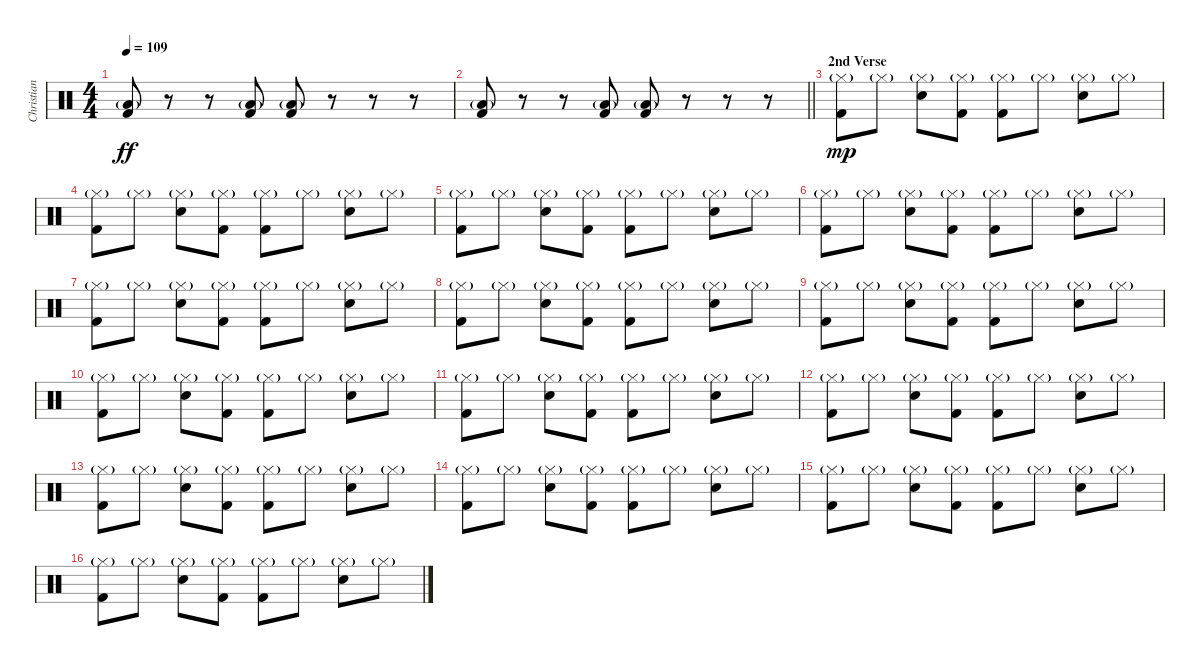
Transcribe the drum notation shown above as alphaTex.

\track ("Christian Eigner - Drums" "Christian ") {instrument percussion}
\staff {score}
\articulation defaults
\ts (4 4)
\tempo 109
\clef neutral
\ks c
("Low Floor Tom (hit)"{g} "Kick (hit) 2").8{dy ff} r.8 r.8 ("Low Floor Tom (hit)"{g} "Kick (hit) 2").8 ("Low Floor Tom (hit)"{g} "Kick (hit) 2").8 r.8 r.8 r.8 |
\barLineRight lightlight
("Low Floor Tom (hit)"{g} "Kick (hit) 2").8 r.8 r.8 ("Low Floor Tom (hit)"{g} "Kick (hit) 2").8 ("Low Floor Tom (hit)"{g} "Kick (hit) 2").8 r.8 r.8 r.8 |
\section ("" "2nd Verse")
("Hi-Hat (closed)"{g} "Kick (hit) 2").8{dy mp} "Hi-Hat (closed)"{g}.8 ("Hi-Hat (closed)"{g} "Snare (hit) 2").8 ("Hi-Hat (closed)"{g} "Kick (hit) 2").8 ("Hi-Hat (closed)"{g} "Kick (hit) 2").8 "Hi-Hat (closed)"{g}.8 ("Hi-Hat (closed)"{g} "Snare (hit) 2").8 "Hi-Hat (closed)"{g}.8 |
("Hi-Hat (closed)"{g} "Kick (hit) 2").8 "Hi-Hat (closed)"{g}.8 ("Hi-Hat (closed)"{g} "Snare (hit) 2").8 ("Hi-Hat (closed)"{g} "Kick (hit) 2").8 ("Hi-Hat (closed)"{g} "Kick (hit) 2").8 "Hi-Hat (closed)"{g}.8 ("Hi-Hat (closed)"{g} "Snare (hit) 2").8 "Hi-Hat (closed)"{g}.8 |
("Hi-Hat (closed)"{g} "Kick (hit) 2").8 "Hi-Hat (closed)"{g}.8 ("Hi-Hat (closed)"{g} "Snare (hit) 2").8 ("Hi-Hat (closed)"{g} "Kick (hit) 2").8 ("Hi-Hat (closed)"{g} "Kick (hit) 2").8 "Hi-Hat (closed)"{g}.8 ("Hi-Hat (closed)"{g} "Snare (hit) 2").8 "Hi-Hat (closed)"{g}.8 |
("Hi-Hat (closed)"{g} "Kick (hit) 2").8 "Hi-Hat (closed)"{g}.8 ("Hi-Hat (closed)"{g} "Snare (hit) 2").8 ("Hi-Hat (closed)"{g} "Kick (hit) 2").8 ("Hi-Hat (closed)"{g} "Kick (hit) 2").8 "Hi-Hat (closed)"{g}.8 ("Hi-Hat (closed)"{g} "Snare (hit) 2").8 "Hi-Hat (closed)"{g}.8 |
("Hi-Hat (closed)"{g} "Kick (hit) 2").8 "Hi-Hat (closed)"{g}.8 ("Hi-Hat (closed)"{g} "Snare (hit) 2").8 ("Hi-Hat (closed)"{g} "Kick (hit) 2").8 ("Hi-Hat (closed)"{g} "Kick (hit) 2").8 "Hi-Hat (closed)"{g}.8 ("Hi-Hat (closed)"{g} "Snare (hit) 2").8 "Hi-Hat (closed)"{g}.8 |
("Hi-Hat (closed)"{g} "Kick (hit) 2").8 "Hi-Hat (closed)"{g}.8 ("Hi-Hat (closed)"{g} "Snare (hit) 2").8 ("Hi-Hat (closed)"{g} "Kick (hit) 2").8 ("Hi-Hat (closed)"{g} "Kick (hit) 2").8 "Hi-Hat (closed)"{g}.8 ("Hi-Hat (closed)"{g} "Snare (hit) 2").8 "Hi-Hat (closed)"{g}.8 |
("Hi-Hat (closed)"{g} "Kick (hit) 2").8 "Hi-Hat (closed)"{g}.8 ("Hi-Hat (closed)"{g} "Snare (hit) 2").8 ("Hi-Hat (closed)"{g} "Kick (hit) 2").8 ("Hi-Hat (closed)"{g} "Kick (hit) 2").8 "Hi-Hat (closed)"{g}.8 ("Hi-Hat (closed)"{g} "Snare (hit) 2").8 "Hi-Hat (closed)"{g}.8 |
("Hi-Hat (closed)"{g} "Kick (hit) 2").8 "Hi-Hat (closed)"{g}.8 ("Hi-Hat (closed)"{g} "Snare (hit) 2").8 ("Hi-Hat (closed)"{g} "Kick (hit) 2").8 ("Hi-Hat (closed)"{g} "Kick (hit) 2").8 "Hi-Hat (closed)"{g}.8 ("Hi-Hat (closed)"{g} "Snare (hit) 2").8 "Hi-Hat (closed)"{g}.8 |
("Hi-Hat (closed)"{g} "Kick (hit) 2").8 "Hi-Hat (closed)"{g}.8 ("Hi-Hat (closed)"{g} "Snare (hit) 2").8 ("Hi-Hat (closed)"{g} "Kick (hit) 2").8 ("Hi-Hat (closed)"{g} "Kick (hit) 2").8 "Hi-Hat (closed)"{g}.8 ("Hi-Hat (closed)"{g} "Snare (hit) 2").8 "Hi-Hat (closed)"{g}.8 |
("Hi-Hat (closed)"{g} "Kick (hit) 2").8 "Hi-Hat (closed)"{g}.8 ("Hi-Hat (closed)"{g} "Snare (hit) 2").8 ("Hi-Hat (closed)"{g} "Kick (hit) 2").8 ("Hi-Hat (closed)"{g} "Kick (hit) 2").8 "Hi-Hat (closed)"{g}.8 ("Hi-Hat (closed)"{g} "Snare (hit) 2").8 "Hi-Hat (closed)"{g}.8 |
("Hi-Hat (closed)"{g} "Kick (hit) 2").8 "Hi-Hat (closed)"{g}.8 ("Hi-Hat (closed)"{g} "Snare (hit) 2").8 ("Hi-Hat (closed)"{g} "Kick (hit) 2").8 ("Hi-Hat (closed)"{g} "Kick (hit) 2").8 "Hi-Hat (closed)"{g}.8 ("Hi-Hat (closed)"{g} "Snare (hit) 2").8 "Hi-Hat (closed)"{g}.8 |
("Hi-Hat (closed)"{g} "Kick (hit) 2").8 "Hi-Hat (closed)"{g}.8 ("Hi-Hat (closed)"{g} "Snare (hit) 2").8 ("Hi-Hat (closed)"{g} "Kick (hit) 2").8 ("Hi-Hat (closed)"{g} "Kick (hit) 2").8 "Hi-Hat (closed)"{g}.8 ("Hi-Hat (closed)"{g} "Snare (hit) 2").8 "Hi-Hat (closed)"{g}.8 |
("Hi-Hat (closed)"{g} "Kick (hit) 2").8 "Hi-Hat (closed)"{g}.8 ("Hi-Hat (closed)"{g} "Snare (hit) 2").8 ("Hi-Hat (closed)"{g} "Kick (hit) 2").8 ("Hi-Hat (closed)"{g} "Kick (hit) 2").8 "Hi-Hat (closed)"{g}.8 ("Hi-Hat (closed)"{g} "Snare (hit) 2").8 "Hi-Hat (closed)"{g}.8 |
("Hi-Hat (closed)"{g} "Kick (hit) 2").8 "Hi-Hat (closed)"{g}.8 ("Hi-Hat (closed)"{g} "Snare (hit) 2").8 ("Hi-Hat (closed)"{g} "Kick (hit) 2").8 ("Hi-Hat (closed)"{g} "Kick (hit) 2").8 "Hi-Hat (closed)"{g}.8 ("Hi-Hat (closed)"{g} "Snare (hit) 2").8 "Hi-Hat (closed)"{g}.8
